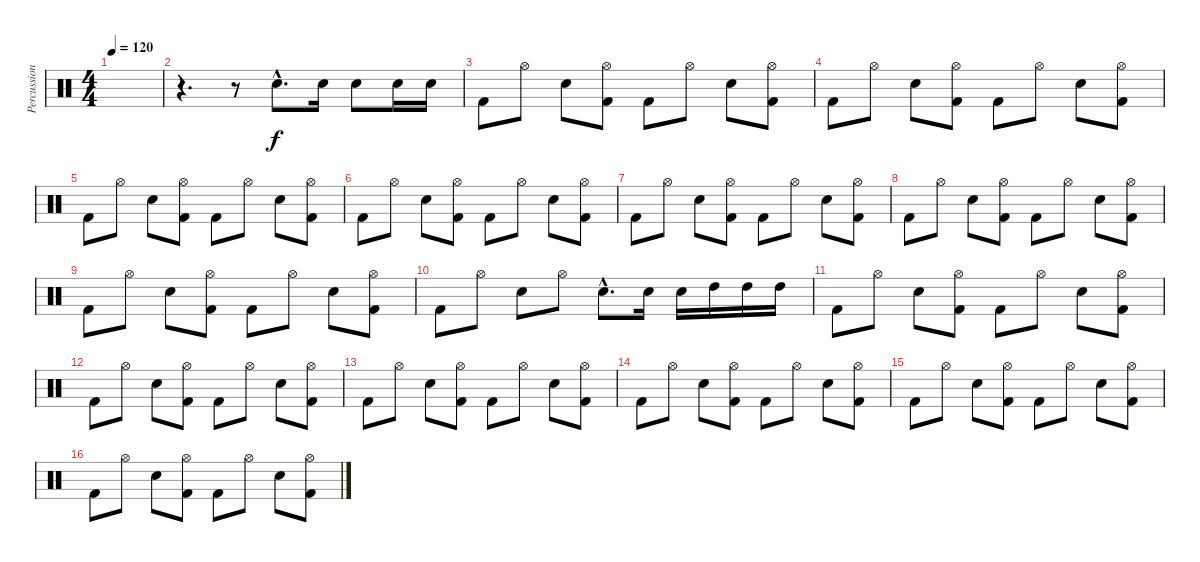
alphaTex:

\track ("Percussions" "Percussion") {instrument percussion}
\staff {score}
\articulation defaults
\ts (4 4)
\tempo 120
\clef neutral
\ks c
|
r.4{d} r.8 "Electric Snare (hit)"{hac}.8{d} "Electric Snare (hit)".16 "Electric Snare (hit)".8 "Electric Snare (hit)".16 "Electric Snare (hit)".16 |
"Kick (hit) 2".8 "Hi-Hat (open)".8 "Electric Snare (hit)".8 ("Kick (hit) 2" "Hi-Hat (open)").8 "Kick (hit) 2".8 "Hi-Hat (open)".8 "Electric Snare (hit)".8 ("Hi-Hat (open)" "Kick (hit) 2").8 |
"Kick (hit) 2".8 "Hi-Hat (open)".8 "Electric Snare (hit)".8 ("Kick (hit) 2" "Hi-Hat (open)").8 "Kick (hit) 2".8 "Hi-Hat (open)".8 "Electric Snare (hit)".8 ("Hi-Hat (open)" "Kick (hit) 2").8 |
"Kick (hit) 2".8 "Hi-Hat (open)".8 "Electric Snare (hit)".8 ("Kick (hit) 2" "Hi-Hat (open)").8 "Kick (hit) 2".8 "Hi-Hat (open)".8 "Electric Snare (hit)".8 ("Hi-Hat (open)" "Kick (hit) 2").8 |
"Kick (hit) 2".8 "Hi-Hat (open)".8 "Electric Snare (hit)".8 ("Kick (hit) 2" "Hi-Hat (open)").8 "Kick (hit) 2".8 "Hi-Hat (open)".8 "Electric Snare (hit)".8 ("Hi-Hat (open)" "Kick (hit) 2").8 |
"Kick (hit) 2".8 "Hi-Hat (open)".8 "Electric Snare (hit)".8 ("Kick (hit) 2" "Hi-Hat (open)").8 "Kick (hit) 2".8 "Hi-Hat (open)".8 "Electric Snare (hit)".8 ("Hi-Hat (open)" "Kick (hit) 2").8 |
"Kick (hit) 2".8 "Hi-Hat (open)".8 "Electric Snare (hit)".8 ("Kick (hit) 2" "Hi-Hat (open)").8 "Kick (hit) 2".8 "Hi-Hat (open)".8 "Electric Snare (hit)".8 ("Hi-Hat (open)" "Kick (hit) 2").8 |
"Kick (hit) 2".8 "Hi-Hat (open)".8 "Electric Snare (hit)".8 ("Kick (hit) 2" "Hi-Hat (open)").8 "Kick (hit) 2".8 "Hi-Hat (open)".8 "Electric Snare (hit)".8 ("Hi-Hat (open)" "Kick (hit) 2").8 |
"Kick (hit) 2".8 "Hi-Hat (open)".8 "Electric Snare (hit)".8 "Hi-Hat (open)".8 "Electric Snare (hit)"{hac}.8{d} "Electric Snare (hit)".16 "Electric Snare (hit)".16 "High Tom (hit)".16 "High Tom (hit)".16 "High Tom (hit)".16 |
"Kick (hit) 2".8 "Hi-Hat (open)".8 "Electric Snare (hit)".8 ("Kick (hit) 2" "Hi-Hat (open)").8 "Kick (hit) 2".8 "Hi-Hat (open)".8 "Electric Snare (hit)".8 ("Hi-Hat (open)" "Kick (hit) 2").8 |
"Kick (hit) 2".8 "Hi-Hat (open)".8 "Electric Snare (hit)".8 ("Kick (hit) 2" "Hi-Hat (open)").8 "Kick (hit) 2".8 "Hi-Hat (open)".8 "Electric Snare (hit)".8 ("Hi-Hat (open)" "Kick (hit) 2").8 |
"Kick (hit) 2".8 "Hi-Hat (open)".8 "Electric Snare (hit)".8 ("Kick (hit) 2" "Hi-Hat (open)").8 "Kick (hit) 2".8 "Hi-Hat (open)".8 "Electric Snare (hit)".8 ("Hi-Hat (open)" "Kick (hit) 2").8 |
"Kick (hit) 2".8 "Hi-Hat (open)".8 "Electric Snare (hit)".8 ("Kick (hit) 2" "Hi-Hat (open)").8 "Kick (hit) 2".8 "Hi-Hat (open)".8 "Electric Snare (hit)".8 ("Hi-Hat (open)" "Kick (hit) 2").8 |
"Kick (hit) 2".8 "Hi-Hat (open)".8 "Electric Snare (hit)".8 ("Kick (hit) 2" "Hi-Hat (open)").8 "Kick (hit) 2".8 "Hi-Hat (open)".8 "Electric Snare (hit)".8 ("Hi-Hat (open)" "Kick (hit) 2").8 |
"Kick (hit) 2".8 "Hi-Hat (open)".8 "Electric Snare (hit)".8 ("Kick (hit) 2" "Hi-Hat (open)").8 "Kick (hit) 2".8 "Hi-Hat (open)".8 "Electric Snare (hit)".8 ("Hi-Hat (open)" "Kick (hit) 2").8
